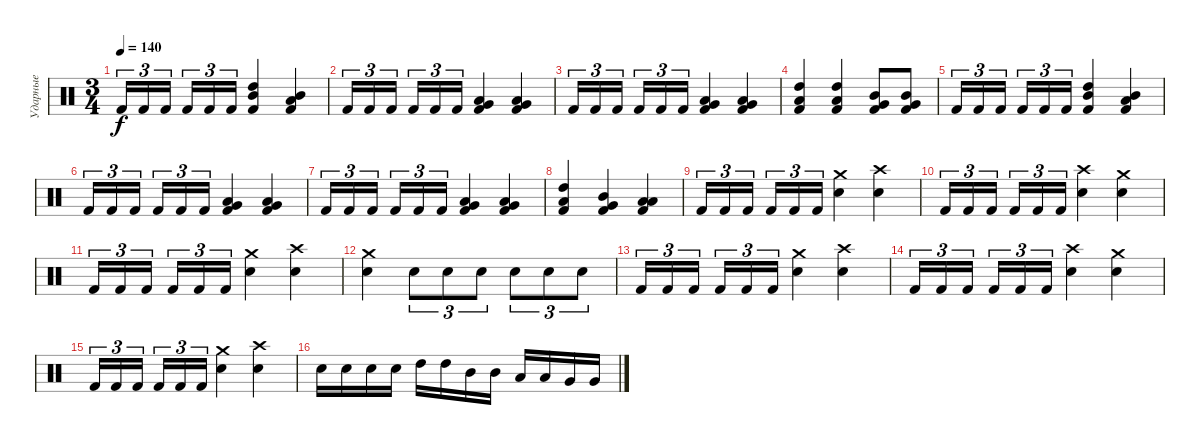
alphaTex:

\track ("Ударные" "Ударные") {instrument percussion}
\staff {score}
\articulation defaults
\ts (3 4)
\tempo 140
\clef neutral
\ks c "Kick (hit) 2".16{tu (3 2) dy f} "Kick (hit) 2".16{tu (3 2)} "Kick (hit) 2".16{tu (3 2) beam splitsecondary} "Kick (hit) 2".16{tu (3 2)} "Kick (hit) 2".16{tu (3 2)} "Kick (hit) 2".16{tu (3 2)}
("High Tom (hit)" "Mid Tom (hit)" "Kick (hit) 2").4 ("Mid Tom (hit)" "Low Tom (hit)" "Kick (hit) 2").4 |
"Kick (hit) 2".16{tu (3 2)} "Kick (hit) 2".16{tu (3 2)} "Kick (hit) 2".16{tu (3 2) beam splitsecondary} "Kick (hit) 2".16{tu (3 2)} "Kick (hit) 2".16{tu (3 2)} "Kick (hit) 2".16{tu (3 2)} ("Low Tom (hit)" "Very Low Tom (hit)" "Kick (hit) 2").4 ("Very Low Tom (hit)" "Low Floor Tom (hit)" "Kick (hit) 2").4 |
"Kick (hit) 2".16{tu (3 2)} "Kick (hit) 2".16{tu (3 2)} "Kick (hit) 2".16{tu (3 2) beam splitsecondary} "Kick (hit) 2".16{tu (3 2)} "Kick (hit) 2".16{tu (3 2)} "Kick (hit) 2".16{tu (3 2)} ("Low Tom (hit)" "Very Low Tom (hit)" "Kick (hit) 2").4 ("Very Low Tom (hit)" "Low Floor Tom (hit)" "Kick (hit) 2").4 |
("High Tom (hit)" "Low Tom (hit)" "Kick (hit) 2").4 ("High Tom (hit)" "Low Tom (hit)" "Kick (hit) 2").4 ("Mid Tom (hit)" "Very Low Tom (hit)" "Kick (hit) 2").8 ("Mid Tom (hit)" "Very Low Tom (hit)" "Kick (hit) 2").8 |
"Kick (hit) 2".16{tu (3 2)} "Kick (hit) 2".16{tu (3 2)} "Kick (hit) 2".16{tu (3 2) beam splitsecondary} "Kick (hit) 2".16{tu (3 2)} "Kick (hit) 2".16{tu (3 2)} "Kick (hit) 2".16{tu (3 2)} ("High Tom (hit)" "Mid Tom (hit)" "Kick (hit) 2").4 ("Mid Tom (hit)" "Low Tom (hit)" "Kick (hit) 2").4 |
"Kick (hit) 2".16{tu (3 2)} "Kick (hit) 2".16{tu (3 2)} "Kick (hit) 2".16{tu (3 2) beam splitsecondary} "Kick (hit) 2".16{tu (3 2)} "Kick (hit) 2".16{tu (3 2)} "Kick (hit) 2".16{tu (3 2)} ("Low Tom (hit)" "Very Low Tom (hit)" "Kick (hit) 2").4 ("Very Low Tom (hit)" "Low Floor Tom (hit)" "Kick (hit) 2").4 |
"Kick (hit) 2".16{tu (3 2)} "Kick (hit) 2".16{tu (3 2)} "Kick (hit) 2".16{tu (3 2) beam splitsecondary} "Kick (hit) 2".16{tu (3 2)} "Kick (hit) 2".16{tu (3 2)} "Kick (hit) 2".16{tu (3 2)} ("Low Tom (hit)" "Very Low Tom (hit)" "Kick (hit) 2").4 ("Very Low Tom (hit)" "Low Floor Tom (hit)" "Kick (hit) 2").4 |
("High Tom (hit)" "Low Tom (hit)" "Kick (hit) 2").4 ("Mid Tom (hit)" "Very Low Tom (hit)" "Kick (hit) 2").4 ("Low Tom (hit)" "Low Floor Tom (hit)" "Kick (hit) 2").4 |
"Kick (hit) 2".16{tu (3 2)} "Kick (hit) 2".16{tu (3 2)} "Kick (hit) 2".16{tu (3 2) beam splitsecondary} "Kick (hit) 2".16{tu (3 2)} "Kick (hit) 2".16{tu (3 2)} "Kick (hit) 2".16{tu (3 2)} ("Crash medium (hit)" "Electric Snare (hit)").4 ("Crash high (hit)" "Electric Snare (hit)").4 |
"Kick (hit) 2".16{tu (3 2)} "Kick (hit) 2".16{tu (3 2)} "Kick (hit) 2".16{tu (3 2) beam splitsecondary} "Kick (hit) 2".16{tu (3 2)} "Kick (hit) 2".16{tu (3 2)} "Kick (hit) 2".16{tu (3 2)} ("Crash high (hit)" "Electric Snare (hit)").4 ("Crash medium (hit)" "Electric Snare (hit)").4 |
"Kick (hit) 2".16{tu (3 2)} "Kick (hit) 2".16{tu (3 2)} "Kick (hit) 2".16{tu (3 2) beam splitsecondary} "Kick (hit) 2".16{tu (3 2)} "Kick (hit) 2".16{tu (3 2)} "Kick (hit) 2".16{tu (3 2)} ("Crash medium (hit)" "Electric Snare (hit)").4 ("Crash high (hit)" "Electric Snare (hit)").4 |
("Crash medium (hit)" "Electric Snare (hit)").4 "Electric Snare (hit)".8{tu (3 2)} "Electric Snare (hit)".8{tu (3 2)} "Electric Snare (hit)".8{tu (3 2)} "Electric Snare (hit)".8{tu (3 2)} "Electric Snare (hit)".8{tu (3 2)} "Electric Snare (hit)".8{tu (3 2)} |
"Kick (hit) 2".16{tu (3 2)} "Kick (hit) 2".16{tu (3 2)} "Kick (hit) 2".16{tu (3 2) beam splitsecondary} "Kick (hit) 2".16{tu (3 2)} "Kick (hit) 2".16{tu (3 2)} "Kick (hit) 2".16{tu (3 2)} ("Crash medium (hit)" "Electric Snare (hit)").4 ("Crash high (hit)" "Electric Snare (hit)").4 |
"Kick (hit) 2".16{tu (3 2)} "Kick (hit) 2".16{tu (3 2)} "Kick (hit) 2".16{tu (3 2) beam splitsecondary} "Kick (hit) 2".16{tu (3 2)} "Kick (hit) 2".16{tu (3 2)} "Kick (hit) 2".16{tu (3 2)} ("Crash high (hit)" "Electric Snare (hit)").4 ("Crash medium (hit)" "Electric Snare (hit)").4 |
"Kick (hit) 2".16{tu (3 2)} "Kick (hit) 2".16{tu (3 2)} "Kick (hit) 2".16{tu (3 2) beam splitsecondary} "Kick (hit) 2".16{tu (3 2)} "Kick (hit) 2".16{tu (3 2)} "Kick (hit) 2".16{tu (3 2)} ("Crash medium (hit)" "Electric Snare (hit)").4 ("Crash high (hit)" "Electric Snare (hit)").4 |
"Electric Snare (hit)".16 "Electric Snare (hit)".16 "Electric Snare (hit)".16 "Electric Snare (hit)".16 "High Tom (hit)".16 "High Tom (hit)".16 "Mid Tom (hit)".16 "Mid Tom (hit)".16 "Low Tom (hit)".16 "Low Tom (hit)".16 "Very Low Tom (hit)".16 "Very Low Tom (hit)".16
